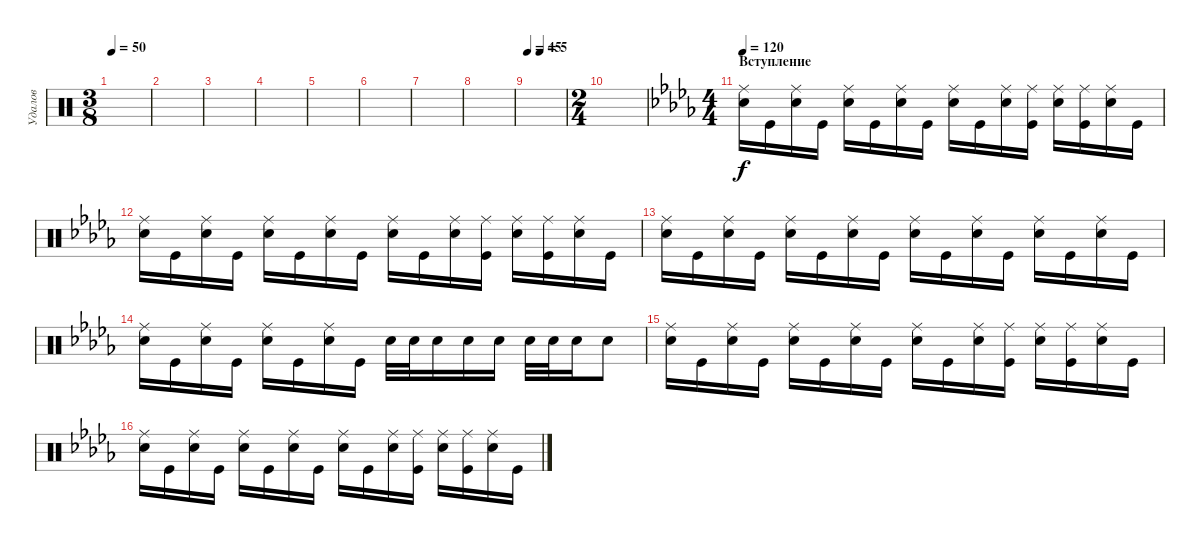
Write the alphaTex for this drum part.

\track ("Удалов " "Удалов ") {instrument percussion}
\staff {score}
\articulation defaults
\ts (3 8)
\tempo 50
\clef neutral
\ks c
|
|
|
|
|
|
|
|
\tempo 45
\tempo (5 0.3333333333333333)
|
\ts (2 4)
|
\ts (4 4)
\section ("" "Вступление ")
\tempo 120
\ks db
("Electric Snare (hit)" "Ride (middle)").16{volume 16 balance 8} "Kick (hit)".16 ("Electric Snare (hit)" "Ride (middle)").16 "Kick (hit)".16 ("Electric Snare (hit)" "Ride (middle)").16 "Kick (hit)".16 ("Electric Snare (hit)" "Ride (middle)").16 "Kick (hit)".16 ("Electric Snare (hit)" "Ride (middle)").16 "Kick (hit)".16 ("Electric Snare (hit)" "Ride (middle)").16 ("Kick (hit)" "Ride (middle)").16 ("Electric Snare (hit)" "Ride (middle)").16 ("Kick (hit)" "Ride (middle)").16 ("Electric Snare (hit)" "Ride (middle)").16 "Kick (hit)".16 |
("Electric Snare (hit)" "Ride (middle)").16 "Kick (hit)".16 ("Electric Snare (hit)" "Ride (middle)").16 "Kick (hit)".16 ("Electric Snare (hit)" "Ride (middle)").16 "Kick (hit)".16 ("Electric Snare (hit)" "Ride (middle)").16 "Kick (hit)".16 ("Electric Snare (hit)" "Ride (middle)").16 "Kick (hit)".16 ("Electric Snare (hit)" "Ride (middle)").16 ("Kick (hit)" "Ride (middle)").16 ("Electric Snare (hit)" "Ride (middle)").16 ("Kick (hit)" "Ride (middle)").16 ("Electric Snare (hit)" "Ride (middle)").16 "Kick (hit)".16 |
("Electric Snare (hit)" "Ride (middle)").16 "Kick (hit)".16 ("Electric Snare (hit)" "Ride (middle)").16 "Kick (hit)".16 ("Electric Snare (hit)" "Ride (middle)").16 "Kick (hit)".16 ("Electric Snare (hit)" "Ride (middle)").16 "Kick (hit)".16 ("Electric Snare (hit)" "Ride (middle)").16 "Kick (hit)".16 ("Electric Snare (hit)" "Ride (middle)").16 "Kick (hit)".16 ("Electric Snare (hit)" "Ride (middle)").16 "Kick (hit)".16 ("Electric Snare (hit)" "Ride (middle)").16 "Kick (hit)".16 |
("Electric Snare (hit)" "Ride (middle)").16 "Kick (hit)".16 ("Electric Snare (hit)" "Ride (middle)").16 "Kick (hit)".16 ("Electric Snare (hit)" "Ride (middle)").16 "Kick (hit)".16 ("Electric Snare (hit)" "Ride (middle)").16 "Kick (hit)".16 "Electric Snare (hit)".32 "Electric Snare (hit)".32 "Electric Snare (hit)".16 "Electric Snare (hit)".16 "Electric Snare (hit)".16 "Electric Snare (hit)".32 "Electric Snare (hit)".32 "Electric Snare (hit)".16 "Electric Snare (hit)".8 |
("Electric Snare (hit)" "Ride (middle)").16 "Kick (hit)".16 ("Electric Snare (hit)" "Ride (middle)").16 "Kick (hit)".16 ("Electric Snare (hit)" "Ride (middle)").16 "Kick (hit)".16 ("Electric Snare (hit)" "Ride (middle)").16 "Kick (hit)".16 ("Electric Snare (hit)" "Ride (middle)").16 "Kick (hit)".16 ("Electric Snare (hit)" "Ride (middle)").16 ("Kick (hit)" "Ride (middle)").16 ("Electric Snare (hit)" "Ride (middle)").16 ("Kick (hit)" "Ride (middle)").16 ("Electric Snare (hit)" "Ride (middle)").16 "Kick (hit)".16 |
("Electric Snare (hit)" "Ride (middle)").16 "Kick (hit)".16 ("Electric Snare (hit)" "Ride (middle)").16 "Kick (hit)".16 ("Electric Snare (hit)" "Ride (middle)").16 "Kick (hit)".16 ("Electric Snare (hit)" "Ride (middle)").16 "Kick (hit)".16 ("Electric Snare (hit)" "Ride (middle)").16 "Kick (hit)".16 ("Electric Snare (hit)" "Ride (middle)").16 ("Kick (hit)" "Ride (middle)").16 ("Electric Snare (hit)" "Ride (middle)").16 ("Kick (hit)" "Ride (middle)").16 ("Electric Snare (hit)" "Ride (middle)").16 "Kick (hit)".16
